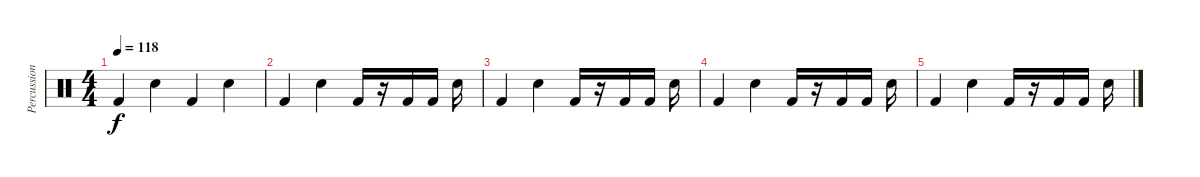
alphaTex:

\track ("Percussions" "Percussion") {instrument percussion}
\staff {score}
\articulation defaults
\ts (4 4)
\tempo 118
\clef neutral
\ks c "Kick (hit) 2".4{dy f} "Snare (hit) 2".4 "Kick (hit) 2".4 "Snare (hit) 2".4
|
"Kick (hit) 2".4 "Snare (hit) 2".4 "Kick (hit) 2".16 r.16 "Kick (hit) 2".16 "Kick (hit) 2".16 "Snare (hit) 2".16 |
"Kick (hit) 2".4 "Snare (hit) 2".4 "Kick (hit) 2".16 r.16 "Kick (hit) 2".16 "Kick (hit) 2".16 "Snare (hit) 2".16 |
"Kick (hit) 2".4 "Snare (hit) 2".4 "Kick (hit) 2".16 r.16 "Kick (hit) 2".16 "Kick (hit) 2".16 "Snare (hit) 2".16 |
"Kick (hit) 2".4 "Snare (hit) 2".4 "Kick (hit) 2".16 r.16 "Kick (hit) 2".16 "Kick (hit) 2".16 "Snare (hit) 2".16
